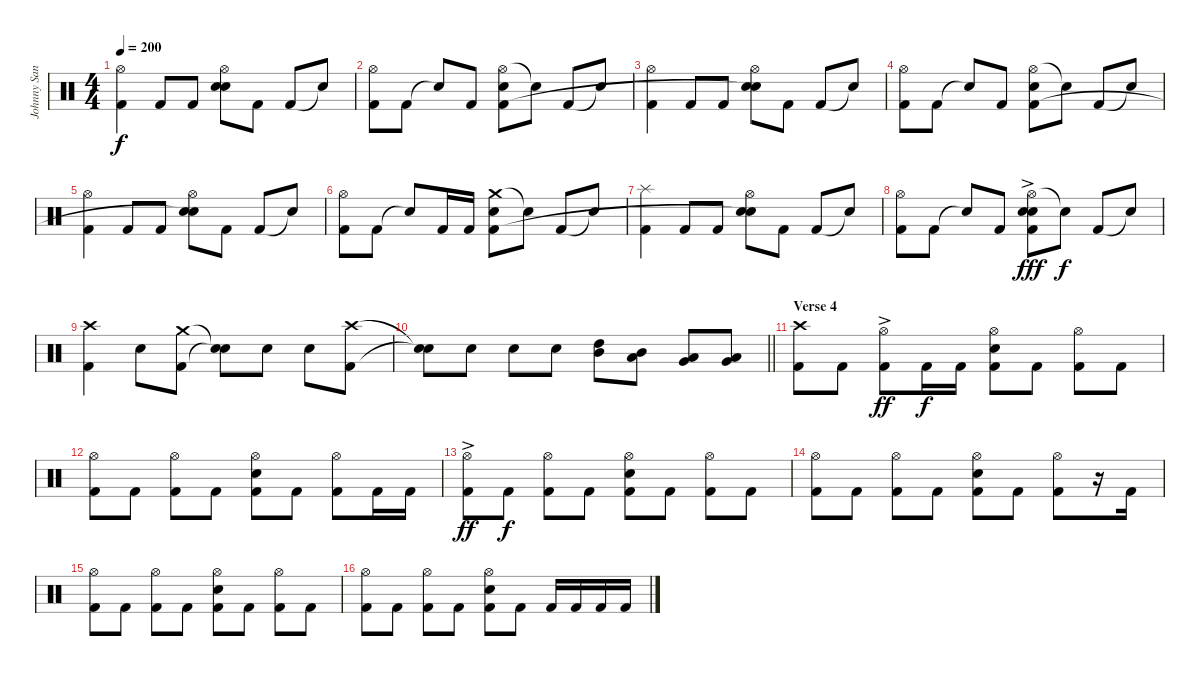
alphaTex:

\track ("Johnny Sandin" "Johnny San") {instrument percussion}
\staff {score}
\articulation defaults
\ts (4 4)
\tempo 200
\clef neutral
\ks c
("Hi-Hat (open)" "Kick (hit) 2").4{dy f} "Kick (hit) 2".8 "Kick (hit) 2".8 ("Hi-Hat (open)" "Snare (hit) 2" "Snare (hit)"{t}).8 "Kick (hit) 2".8 "Kick (hit) 2".8 "Snare (hit)"{t}.8 |
("Hi-Hat (open)" "Kick (hit) 2").8 "Kick (hit) 2".8 "Snare (hit)"{t}.8 "Kick (hit) 2".8 ("Hi-Hat (open)" "Snare (hit) 2" "Kick (hit) 2").8 "Snare (hit)"{t}.8 "Kick (hit) 2".8 "Snare (hit)"{t}.8 |
("Hi-Hat (open)" "Kick (hit) 2").4 "Kick (hit) 2".8 "Kick (hit) 2".8 ("Hi-Hat (open)" "Snare (hit) 2" "Snare (hit)"{t}).8 "Kick (hit) 2".8 "Kick (hit) 2".8 "Snare (hit)"{t}.8 |
("Hi-Hat (open)" "Kick (hit) 2").8 "Kick (hit) 2".8 "Snare (hit)"{t}.8 "Kick (hit) 2".8 ("Hi-Hat (open)" "Snare (hit) 2" "Kick (hit) 2").8 "Snare (hit)"{t}.8 "Kick (hit) 2".8 "Snare (hit)"{t}.8 |
("Hi-Hat (open)" "Kick (hit) 2").4 "Kick (hit) 2".8 "Kick (hit) 2".8 ("Hi-Hat (open)" "Snare (hit) 2" "Snare (hit)"{t}).8 "Kick (hit) 2".8 "Kick (hit) 2".8 "Snare (hit)"{t}.8 |
("Hi-Hat (open)" "Kick (hit) 2").8 "Kick (hit) 2".8 "Snare (hit)"{t}.8 "Kick (hit) 2".16 "Kick (hit) 2".16 ("Crash medium (hit)" "Snare (hit) 2" "Kick (hit) 2").8 "Snare (hit)"{t}.8 "Kick (hit) 2".8 "Snare (hit)"{t}.8 |
("Splash (hit)" "Kick (hit) 2").4 "Kick (hit) 2".8 "Kick (hit) 2".8 ("Hi-Hat (open)" "Snare (hit) 2" "Snare (hit)"{t}).8 "Kick (hit) 2".8 "Kick (hit) 2".8 "Snare (hit)"{t}.8 |
("Hi-Hat (open)" "Kick (hit) 2").8 "Kick (hit) 2".8 "Snare (hit)"{t}.8 "Kick (hit) 2".8 ("Hi-Hat (open)" "Snare (hit) 2"{ac} "Kick (hit) 2" "Snare (hit) 2"{ac}).8{dy fff} "Snare (hit)"{t}.8{dy f} "Kick (hit) 2".8 "Snare (hit)"{t}.8 |
("Crash high (hit)" "Kick (hit) 2").4 "Snare (hit) 2".8 ("Crash medium (hit)" "Kick (hit) 2").8 ("Snare (hit)"{t} "Snare (hit)"{t}).8 "Snare (hit) 2".8 "Snare (hit) 2".8 ("Crash high (hit)" "Kick (hit) 2").8 |
\barLineRight lightlight
("Snare (hit)"{t} "Snare (hit)"{t}).8 "Snare (hit) 2".8 "Snare (hit) 2".8 "Snare (hit) 2".8 ("High Tom (hit)" "Mid Tom (hit)").8 ("Mid Tom (hit)" "Low Tom (hit)").8 ("Low Tom (hit)" "Very Low Tom (hit)").8 ("Very Low Tom (hit)" "Low Floor Tom (hit)").8 |
\section ("" "Verse 4")
("Crash high (hit)" "Kick (hit) 2").8 "Kick (hit) 2".8 ("Hi-Hat (open)"{ac} "Kick (hit) 2").8{dy ff} "Kick (hit) 2".16{dy f} "Kick (hit) 2".16 ("Hi-Hat (open)" "Snare (hit) 2" "Kick (hit) 2").8 "Kick (hit) 2".8 ("Hi-Hat (open)" "Kick (hit) 2").8 "Kick (hit) 2".8 |
("Hi-Hat (open)" "Kick (hit) 2").8 "Kick (hit) 2".8 ("Hi-Hat (open)" "Kick (hit) 2").8 "Kick (hit) 2".8 ("Hi-Hat (open)" "Snare (hit) 2" "Kick (hit) 2").8 "Kick (hit) 2".8 ("Hi-Hat (open)" "Kick (hit) 2").8 "Kick (hit) 2".16 "Kick (hit) 2".16 |
("Hi-Hat (open)"{ac} "Kick (hit) 2").8{dy ff} "Kick (hit) 2".8{dy f} ("Hi-Hat (open)" "Kick (hit) 2").8 "Kick (hit) 2".8 ("Hi-Hat (open)" "Snare (hit) 2" "Kick (hit) 2").8 "Kick (hit) 2".8 ("Hi-Hat (open)" "Kick (hit) 2").8 "Kick (hit) 2".8 |
("Hi-Hat (open)" "Kick (hit) 2").8 "Kick (hit) 2".8 ("Hi-Hat (open)" "Kick (hit) 2").8 "Kick (hit) 2".8 ("Hi-Hat (open)" "Snare (hit) 2" "Kick (hit) 2").8 "Kick (hit) 2".8 ("Hi-Hat (open)" "Kick (hit) 2").8 r.16 "Kick (hit) 2".16 |
("Hi-Hat (open)" "Kick (hit) 2").8 "Kick (hit) 2".8 ("Hi-Hat (open)" "Kick (hit) 2").8 "Kick (hit) 2".8 ("Hi-Hat (open)" "Snare (hit) 2" "Kick (hit) 2").8 "Kick (hit) 2".8 ("Hi-Hat (open)" "Kick (hit) 2").8 "Kick (hit) 2".8 |
("Hi-Hat (open)" "Kick (hit) 2").8 "Kick (hit) 2".8 ("Hi-Hat (open)" "Kick (hit) 2").8 "Kick (hit) 2".8 ("Hi-Hat (open)" "Snare (hit) 2" "Kick (hit) 2").8 "Kick (hit) 2".8 "Kick (hit) 2".16 "Kick (hit) 2".16 "Kick (hit) 2".16 "Kick (hit) 2".16
